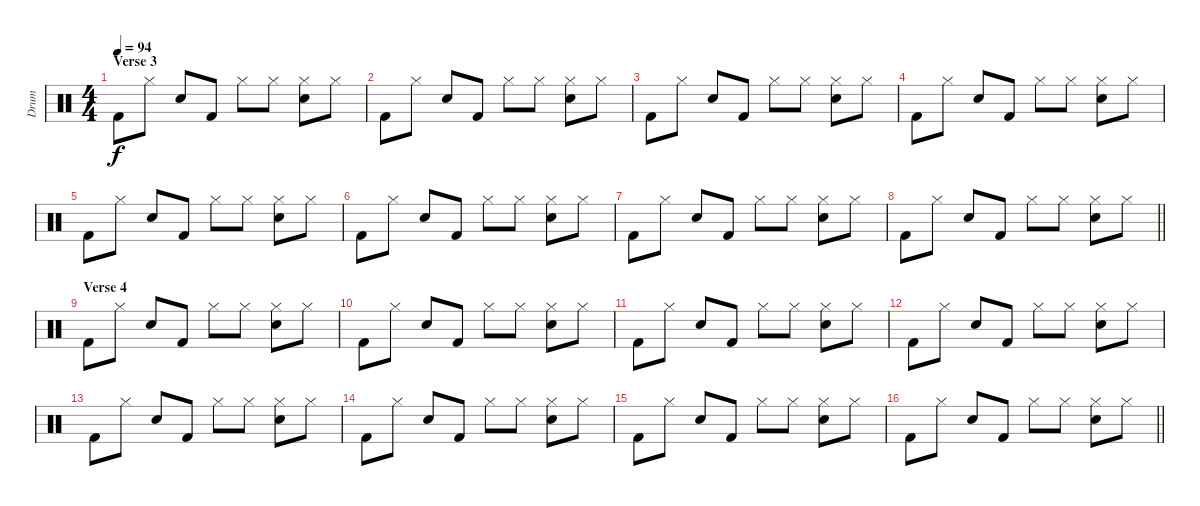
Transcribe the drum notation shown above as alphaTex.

\track ("Drum" "Drum") {instrument percussion}
\staff {score}
\articulation defaults
\ts (4 4)
\section ("" "Verse 3")
\tempo 94
\clef neutral
\ks c "Kick (hit) 2".8{dy f} "Hi-Hat (closed)".8 "Electric Snare (hit)".8 "Kick (hit) 2".8 "Hi-Hat (closed)".8 "Hi-Hat (closed)".8
("Hi-Hat (closed)" "Electric Snare (hit)").8 "Hi-Hat (closed)".8 |
"Kick (hit) 2".8 "Hi-Hat (closed)".8 "Electric Snare (hit)".8 "Kick (hit) 2".8 "Hi-Hat (closed)".8 "Hi-Hat (closed)".8 ("Hi-Hat (closed)" "Electric Snare (hit)").8 "Hi-Hat (closed)".8 |
"Kick (hit) 2".8 "Hi-Hat (closed)".8 "Electric Snare (hit)".8 "Kick (hit) 2".8 "Hi-Hat (closed)".8 "Hi-Hat (closed)".8 ("Hi-Hat (closed)" "Electric Snare (hit)").8 "Hi-Hat (closed)".8 |
"Kick (hit) 2".8 "Hi-Hat (closed)".8 "Electric Snare (hit)".8 "Kick (hit) 2".8 "Hi-Hat (closed)".8 "Hi-Hat (closed)".8 ("Hi-Hat (closed)" "Electric Snare (hit)").8 "Hi-Hat (closed)".8 |
"Kick (hit) 2".8 "Hi-Hat (closed)".8 "Electric Snare (hit)".8 "Kick (hit) 2".8 "Hi-Hat (closed)".8 "Hi-Hat (closed)".8 ("Hi-Hat (closed)" "Electric Snare (hit)").8 "Hi-Hat (closed)".8 |
"Kick (hit) 2".8 "Hi-Hat (closed)".8 "Electric Snare (hit)".8 "Kick (hit) 2".8 "Hi-Hat (closed)".8 "Hi-Hat (closed)".8 ("Hi-Hat (closed)" "Electric Snare (hit)").8 "Hi-Hat (closed)".8 |
"Kick (hit) 2".8 "Hi-Hat (closed)".8 "Electric Snare (hit)".8 "Kick (hit) 2".8 "Hi-Hat (closed)".8 "Hi-Hat (closed)".8 ("Hi-Hat (closed)" "Electric Snare (hit)").8 "Hi-Hat (closed)".8 |
\barLineRight lightlight "Kick (hit) 2".8 "Hi-Hat (closed)".8 "Electric Snare (hit)".8 "Kick (hit) 2".8 "Hi-Hat (closed)".8 "Hi-Hat (closed)".8
("Hi-Hat (closed)" "Electric Snare (hit)").8 "Hi-Hat (closed)".8 |
\section ("" "Verse 4")
"Kick (hit) 2".8 "Hi-Hat (closed)".8 "Electric Snare (hit)".8 "Kick (hit) 2".8 "Hi-Hat (closed)".8 "Hi-Hat (closed)".8 ("Hi-Hat (closed)" "Electric Snare (hit)").8 "Hi-Hat (closed)".8 |
"Kick (hit) 2".8 "Hi-Hat (closed)".8 "Electric Snare (hit)".8 "Kick (hit) 2".8 "Hi-Hat (closed)".8 "Hi-Hat (closed)".8 ("Hi-Hat (closed)" "Electric Snare (hit)").8 "Hi-Hat (closed)".8 |
"Kick (hit) 2".8 "Hi-Hat (closed)".8 "Electric Snare (hit)".8 "Kick (hit) 2".8 "Hi-Hat (closed)".8 "Hi-Hat (closed)".8 ("Hi-Hat (closed)" "Electric Snare (hit)").8 "Hi-Hat (closed)".8 |
"Kick (hit) 2".8 "Hi-Hat (closed)".8 "Electric Snare (hit)".8 "Kick (hit) 2".8 "Hi-Hat (closed)".8 "Hi-Hat (closed)".8 ("Hi-Hat (closed)" "Electric Snare (hit)").8 "Hi-Hat (closed)".8 |
"Kick (hit) 2".8 "Hi-Hat (closed)".8 "Electric Snare (hit)".8 "Kick (hit) 2".8 "Hi-Hat (closed)".8 "Hi-Hat (closed)".8 ("Hi-Hat (closed)" "Electric Snare (hit)").8 "Hi-Hat (closed)".8 |
"Kick (hit) 2".8 "Hi-Hat (closed)".8 "Electric Snare (hit)".8 "Kick (hit) 2".8 "Hi-Hat (closed)".8 "Hi-Hat (closed)".8 ("Hi-Hat (closed)" "Electric Snare (hit)").8 "Hi-Hat (closed)".8 |
"Kick (hit) 2".8 "Hi-Hat (closed)".8 "Electric Snare (hit)".8 "Kick (hit) 2".8 "Hi-Hat (closed)".8 "Hi-Hat (closed)".8 ("Hi-Hat (closed)" "Electric Snare (hit)").8 "Hi-Hat (closed)".8 |
\barLineRight lightlight "Kick (hit) 2".8 "Hi-Hat (closed)".8 "Electric Snare (hit)".8 "Kick (hit) 2".8 "Hi-Hat (closed)".8 "Hi-Hat (closed)".8
("Hi-Hat (closed)" "Electric Snare (hit)").8 "Hi-Hat (closed)".8
